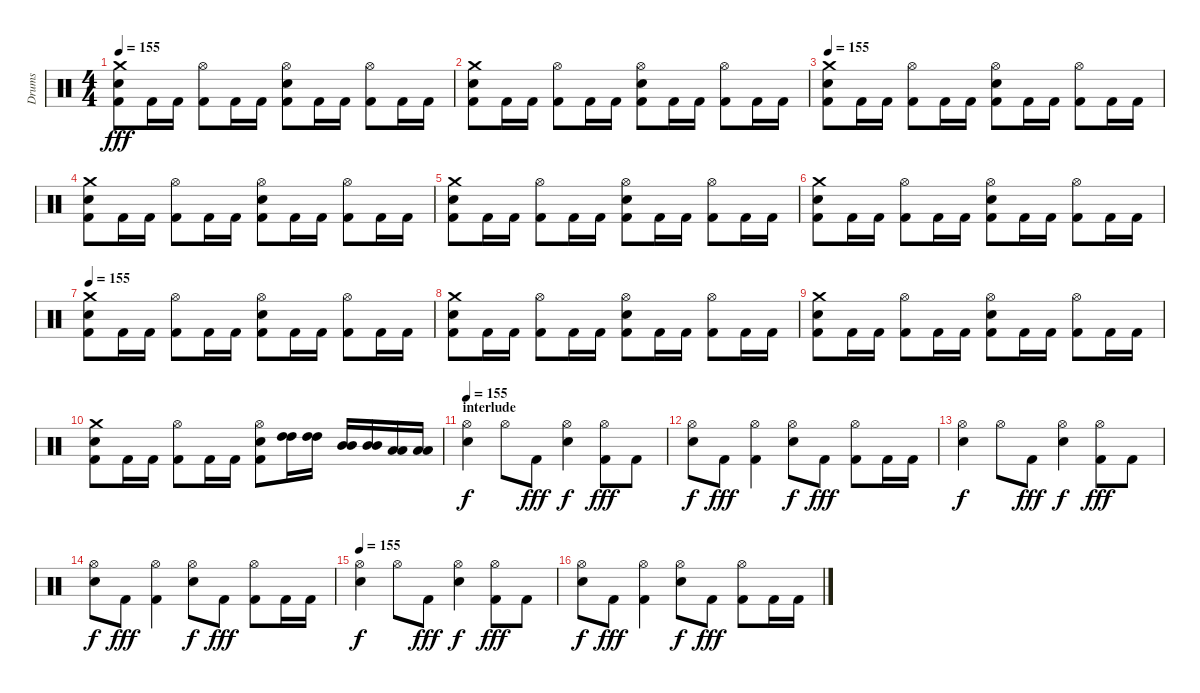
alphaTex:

\track ("Drums" "Drums") {instrument percussion}
\staff {score}
\articulation defaults
\ts (4 4)
\tempo 155
\clef neutral
\ks c
("Crash medium (hit)" "Electric Snare (hit)" "Kick (hit) 2").8{dy fff} "Kick (hit) 2".16 "Kick (hit) 2".16 ("Hi-Hat (open)" "Kick (hit) 2").8 "Kick (hit) 2".16 "Kick (hit) 2".16 ("Hi-Hat (open)" "Electric Snare (hit)" "Kick (hit) 2").8 "Kick (hit) 2".16 "Kick (hit) 2".16 ("Hi-Hat (open)" "Kick (hit) 2").8 "Kick (hit) 2".16 "Kick (hit) 2".16 |
("Crash medium (hit)" "Electric Snare (hit)" "Kick (hit) 2").8 "Kick (hit) 2".16 "Kick (hit) 2".16 ("Hi-Hat (open)" "Kick (hit) 2").8 "Kick (hit) 2".16 "Kick (hit) 2".16 ("Hi-Hat (open)" "Electric Snare (hit)" "Kick (hit) 2").8 "Kick (hit) 2".16 "Kick (hit) 2".16 ("Hi-Hat (open)" "Kick (hit) 2").8 "Kick (hit) 2".16 "Kick (hit) 2".16 |
\tempo 155
("Crash medium (hit)" "Electric Snare (hit)" "Kick (hit) 2").8 "Kick (hit) 2".16 "Kick (hit) 2".16 ("Hi-Hat (open)" "Kick (hit) 2").8 "Kick (hit) 2".16 "Kick (hit) 2".16 ("Hi-Hat (open)" "Electric Snare (hit)" "Kick (hit) 2").8 "Kick (hit) 2".16 "Kick (hit) 2".16 ("Hi-Hat (open)" "Kick (hit) 2").8 "Kick (hit) 2".16 "Kick (hit) 2".16 |
("Crash medium (hit)" "Electric Snare (hit)" "Kick (hit) 2").8 "Kick (hit) 2".16 "Kick (hit) 2".16 ("Hi-Hat (open)" "Kick (hit) 2").8 "Kick (hit) 2".16 "Kick (hit) 2".16 ("Hi-Hat (open)" "Electric Snare (hit)" "Kick (hit) 2").8 "Kick (hit) 2".16 "Kick (hit) 2".16 ("Hi-Hat (open)" "Kick (hit) 2").8 "Kick (hit) 2".16 "Kick (hit) 2".16 |
("Crash medium (hit)" "Electric Snare (hit)" "Kick (hit) 2").8 "Kick (hit) 2".16 "Kick (hit) 2".16 ("Hi-Hat (open)" "Kick (hit) 2").8 "Kick (hit) 2".16 "Kick (hit) 2".16 ("Hi-Hat (open)" "Electric Snare (hit)" "Kick (hit) 2").8 "Kick (hit) 2".16 "Kick (hit) 2".16 ("Hi-Hat (open)" "Kick (hit) 2").8 "Kick (hit) 2".16 "Kick (hit) 2".16 |
("Crash medium (hit)" "Electric Snare (hit)" "Kick (hit) 2").8 "Kick (hit) 2".16 "Kick (hit) 2".16 ("Hi-Hat (open)" "Kick (hit) 2").8 "Kick (hit) 2".16 "Kick (hit) 2".16 ("Hi-Hat (open)" "Electric Snare (hit)" "Kick (hit) 2").8 "Kick (hit) 2".16 "Kick (hit) 2".16 ("Hi-Hat (open)" "Kick (hit) 2").8 "Kick (hit) 2".16 "Kick (hit) 2".16 |
\tempo 155
("Crash medium (hit)" "Electric Snare (hit)" "Kick (hit) 2").8 "Kick (hit) 2".16 "Kick (hit) 2".16 ("Hi-Hat (open)" "Kick (hit) 2").8 "Kick (hit) 2".16 "Kick (hit) 2".16 ("Hi-Hat (open)" "Electric Snare (hit)" "Kick (hit) 2").8 "Kick (hit) 2".16 "Kick (hit) 2".16 ("Hi-Hat (open)" "Kick (hit) 2").8 "Kick (hit) 2".16 "Kick (hit) 2".16 |
("Crash medium (hit)" "Electric Snare (hit)" "Kick (hit) 2").8 "Kick (hit) 2".16 "Kick (hit) 2".16 ("Hi-Hat (open)" "Kick (hit) 2").8 "Kick (hit) 2".16 "Kick (hit) 2".16 ("Hi-Hat (open)" "Electric Snare (hit)" "Kick (hit) 2").8 "Kick (hit) 2".16 "Kick (hit) 2".16 ("Hi-Hat (open)" "Kick (hit) 2").8 "Kick (hit) 2".16 "Kick (hit) 2".16 |
("Crash medium (hit)" "Electric Snare (hit)" "Kick (hit) 2").8 "Kick (hit) 2".16 "Kick (hit) 2".16 ("Hi-Hat (open)" "Kick (hit) 2").8 "Kick (hit) 2".16 "Kick (hit) 2".16 ("Hi-Hat (open)" "Electric Snare (hit)" "Kick (hit) 2").8 "Kick (hit) 2".16 "Kick (hit) 2".16 ("Hi-Hat (open)" "Kick (hit) 2").8 "Kick (hit) 2".16 "Kick (hit) 2".16 |
("Crash medium (hit)" "Electric Snare (hit)" "Kick (hit) 2").8 "Kick (hit) 2".16 "Kick (hit) 2".16 ("Hi-Hat (open)" "Kick (hit) 2").8 "Kick (hit) 2".16 "Kick (hit) 2".16 ("Hi-Hat (open)" "Electric Snare (hit)" "Kick (hit) 2").8 ("High Tom (hit)" "High Tom (hit)").16 ("High Tom (hit)" "High Tom (hit)").16 ("Mid Tom (hit)" "Mid Tom (hit)").16 ("Mid Tom (hit)" "Mid Tom (hit)").16 ("Low Tom (hit)" "Low Tom (hit)").16 ("Low Tom (hit)" "Low Tom (hit)").16 |
\section ("" "interlude")
\tempo 155
("Hi-Hat (open)" "Electric Snare (hit)").4{dy f} "Hi-Hat (open)".8 "Kick (hit) 2".8{dy fff} ("Hi-Hat (open)" "Electric Snare (hit)").4{dy f} ("Hi-Hat (open)" "Kick (hit) 2").8{dy fff} "Kick (hit) 2".8 |
("Hi-Hat (open)" "Electric Snare (hit)").8{dy f} "Kick (hit) 2".8{dy fff} ("Hi-Hat (open)" "Kick (hit) 2").4 ("Hi-Hat (open)" "Electric Snare (hit)").8{dy f} "Kick (hit) 2".8{dy fff} ("Hi-Hat (open)" "Kick (hit) 2").8 "Kick (hit) 2".16 "Kick (hit) 2".16 |
("Hi-Hat (open)" "Electric Snare (hit)").4{dy f} "Hi-Hat (open)".8 "Kick (hit) 2".8{dy fff} ("Hi-Hat (open)" "Electric Snare (hit)").4{dy f} ("Hi-Hat (open)" "Kick (hit) 2").8{dy fff} "Kick (hit) 2".8 |
("Hi-Hat (open)" "Electric Snare (hit)").8{dy f} "Kick (hit) 2".8{dy fff} ("Hi-Hat (open)" "Kick (hit) 2").4 ("Hi-Hat (open)" "Electric Snare (hit)").8{dy f} "Kick (hit) 2".8{dy fff} ("Hi-Hat (open)" "Kick (hit) 2").8 "Kick (hit) 2".16 "Kick (hit) 2".16 |
\tempo 155
("Hi-Hat (open)" "Electric Snare (hit)").4{dy f} "Hi-Hat (open)".8 "Kick (hit) 2".8{dy fff} ("Hi-Hat (open)" "Electric Snare (hit)").4{dy f} ("Hi-Hat (open)" "Kick (hit) 2").8{dy fff} "Kick (hit) 2".8 |
("Hi-Hat (open)" "Electric Snare (hit)").8{dy f} "Kick (hit) 2".8{dy fff} ("Hi-Hat (open)" "Kick (hit) 2").4 ("Hi-Hat (open)" "Electric Snare (hit)").8{dy f} "Kick (hit) 2".8{dy fff} ("Hi-Hat (open)" "Kick (hit) 2").8 "Kick (hit) 2".16 "Kick (hit) 2".16
